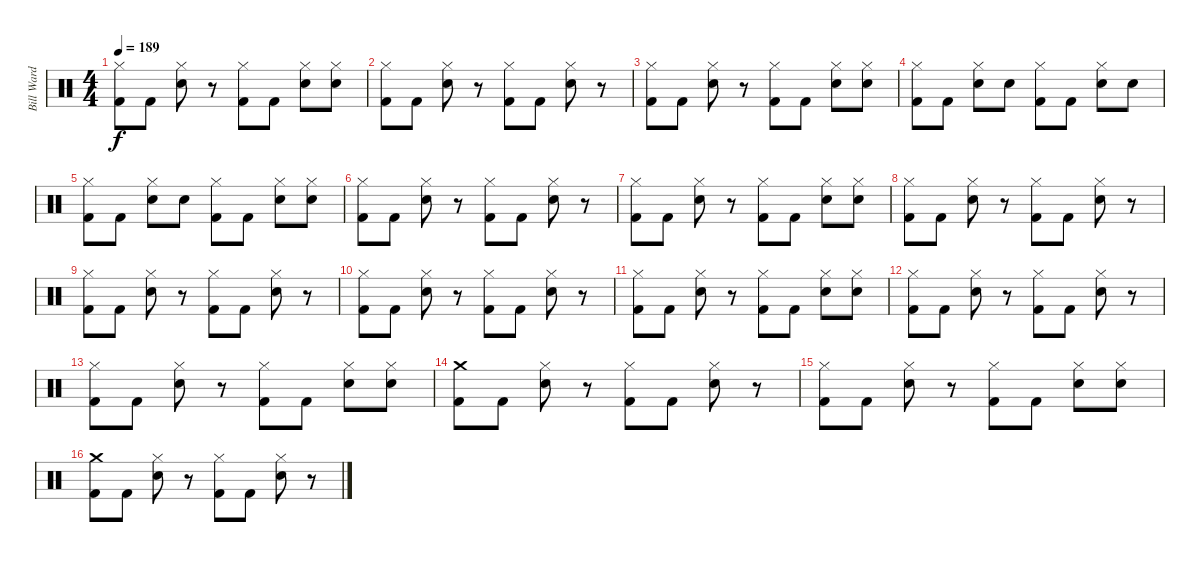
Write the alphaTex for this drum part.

\track ("Bill Ward" "Bill Ward") {instrument percussion}
\staff {score}
\articulation defaults
\ts (4 4)
\tempo 189
\clef neutral
\ks c
("Hi-Hat (closed)" "Kick (hit) 2").8{dy f} "Kick (hit) 2".8 ("Electric Snare (hit)" "Hi-Hat (closed)").8 r.8 ("Hi-Hat (closed)" "Kick (hit) 2").8 "Kick (hit) 2".8 ("Hi-Hat (closed)" "Electric Snare (hit)").8 ("Hi-Hat (closed)" "Electric Snare (hit)").8 |
("Hi-Hat (closed)" "Kick (hit) 2").8 "Kick (hit) 2".8 ("Hi-Hat (closed)" "Electric Snare (hit)").8 r.8 ("Kick (hit) 2" "Hi-Hat (closed)").8 "Kick (hit) 2".8 ("Hi-Hat (closed)" "Electric Snare (hit)").8 r.8 |
("Kick (hit) 2" "Hi-Hat (closed)").8 "Kick (hit) 2".8 ("Hi-Hat (closed)" "Electric Snare (hit)").8 r.8 ("Kick (hit) 2" "Hi-Hat (closed)").8 "Kick (hit) 2".8 ("Hi-Hat (closed)" "Electric Snare (hit)").8 ("Electric Snare (hit)" "Hi-Hat (closed)").8 |
("Kick (hit) 2" "Hi-Hat (closed)").8 "Kick (hit) 2".8 ("Electric Snare (hit)" "Hi-Hat (closed)").8 "Electric Snare (hit)".8 ("Hi-Hat (closed)" "Kick (hit) 2").8 "Kick (hit) 2".8 ("Hi-Hat (closed)" "Electric Snare (hit)").8 "Electric Snare (hit)".8 |
("Kick (hit) 2" "Hi-Hat (closed)").8 "Kick (hit) 2".8 ("Electric Snare (hit)" "Hi-Hat (closed)").8 "Electric Snare (hit)".8 ("Kick (hit) 2" "Hi-Hat (closed)").8 "Kick (hit) 2".8 ("Electric Snare (hit)" "Hi-Hat (closed)").8 ("Hi-Hat (closed)" "Electric Snare (hit)").8 |
("Hi-Hat (closed)" "Kick (hit) 2").8 "Kick (hit) 2".8 ("Electric Snare (hit)" "Hi-Hat (closed)").8 r.8 ("Kick (hit) 2" "Hi-Hat (closed)").8 "Kick (hit) 2".8 ("Electric Snare (hit)" "Hi-Hat (closed)").8 r.8 |
("Kick (hit) 2" "Hi-Hat (closed)").8 "Kick (hit) 2".8 ("Electric Snare (hit)" "Hi-Hat (closed)").8 r.8 ("Kick (hit) 2" "Hi-Hat (closed)").8 "Kick (hit) 2".8 ("Hi-Hat (closed)" "Electric Snare (hit)").8 ("Hi-Hat (closed)" "Electric Snare (hit)").8 |
("Hi-Hat (closed)" "Kick (hit) 2").8 "Kick (hit) 2".8 ("Hi-Hat (closed)" "Electric Snare (hit)").8 r.8 ("Hi-Hat (closed)" "Kick (hit) 2").8 "Kick (hit) 2".8 ("Electric Snare (hit)" "Hi-Hat (closed)").8 r.8 |
("Kick (hit) 2" "Hi-Hat (closed)").8 "Kick (hit) 2".8 ("Electric Snare (hit)" "Hi-Hat (closed)").8 r.8 ("Hi-Hat (closed)" "Kick (hit) 2").8 "Kick (hit) 2".8 ("Hi-Hat (closed)" "Electric Snare (hit)").8 r.8 |
("Hi-Hat (closed)" "Kick (hit) 2").8 "Kick (hit) 2".8 ("Electric Snare (hit)" "Hi-Hat (closed)").8 r.8 ("Hi-Hat (closed)" "Kick (hit) 2").8 "Kick (hit) 2".8 ("Hi-Hat (closed)" "Electric Snare (hit)").8 r.8 |
("Kick (hit) 2" "Hi-Hat (closed)").8 "Kick (hit) 2".8 ("Hi-Hat (closed)" "Electric Snare (hit)").8 r.8 ("Kick (hit) 2" "Hi-Hat (closed)").8 "Kick (hit) 2".8 ("Hi-Hat (closed)" "Electric Snare (hit)").8 ("Electric Snare (hit)" "Hi-Hat (closed)").8 |
("Hi-Hat (closed)" "Kick (hit) 2").8 "Kick (hit) 2".8 ("Hi-Hat (closed)" "Electric Snare (hit)").8 r.8 ("Kick (hit) 2" "Hi-Hat (closed)").8 "Kick (hit) 2".8 ("Hi-Hat (closed)" "Electric Snare (hit)").8 r.8 |
("Hi-Hat (closed)" "Kick (hit) 2").8 "Kick (hit) 2".8 ("Hi-Hat (closed)" "Electric Snare (hit)").8 r.8 ("Hi-Hat (closed)" "Kick (hit) 2").8 "Kick (hit) 2".8 ("Electric Snare (hit)" "Hi-Hat (closed)").8 ("Hi-Hat (closed)" "Electric Snare (hit)").8 |
("Crash medium (hit)" "Kick (hit) 2").8 "Kick (hit) 2".8 ("Electric Snare (hit)" "Hi-Hat (closed)").8 r.8 ("Kick (hit) 2" "Hi-Hat (closed)").8 "Kick (hit) 2".8 ("Hi-Hat (closed)" "Electric Snare (hit)").8 r.8 |
("Hi-Hat (closed)" "Kick (hit) 2").8 "Kick (hit) 2".8 ("Hi-Hat (closed)" "Electric Snare (hit)").8 r.8 ("Hi-Hat (closed)" "Kick (hit) 2").8 "Kick (hit) 2".8 ("Electric Snare (hit)" "Hi-Hat (closed)").8 ("Electric Snare (hit)" "Hi-Hat (closed)").8 |
("Kick (hit) 2" "Crash medium (hit)").8 "Kick (hit) 2".8 ("Hi-Hat (closed)" "Electric Snare (hit)").8 r.8 ("Hi-Hat (closed)" "Kick (hit) 2").8 "Kick (hit) 2".8 ("Hi-Hat (closed)" "Electric Snare (hit)").8 r.8
